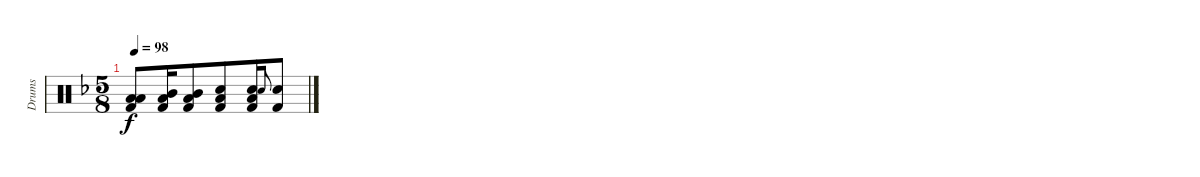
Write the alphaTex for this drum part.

\track ("Drums" "Drums") {instrument percussion}
\staff {score}
\articulation defaults
\ts (5 8)
\tempo 98
\clef neutral
\ks dminor
("Low Tom (hit)" "Low Tom (hit)" "Kick (hit) 2").8{dy f beam merge} ("Mid Tom (hit)" "Low Tom (hit)" "Kick (hit) 2").16 ("Mid Tom (hit)" "Low Tom (hit)" "Kick (hit) 2").8 ("Electric Snare (hit)" "Low Tom (hit)" "Kick (hit) 2").8{beam merge} ("Electric Snare (hit)" "Low Tom (hit)" "Kick (hit) 2").16 "Electric Snare (hit)".8{gr onbeat beam merge} ("Electric Snare (hit)" "Kick (hit) 2").8
